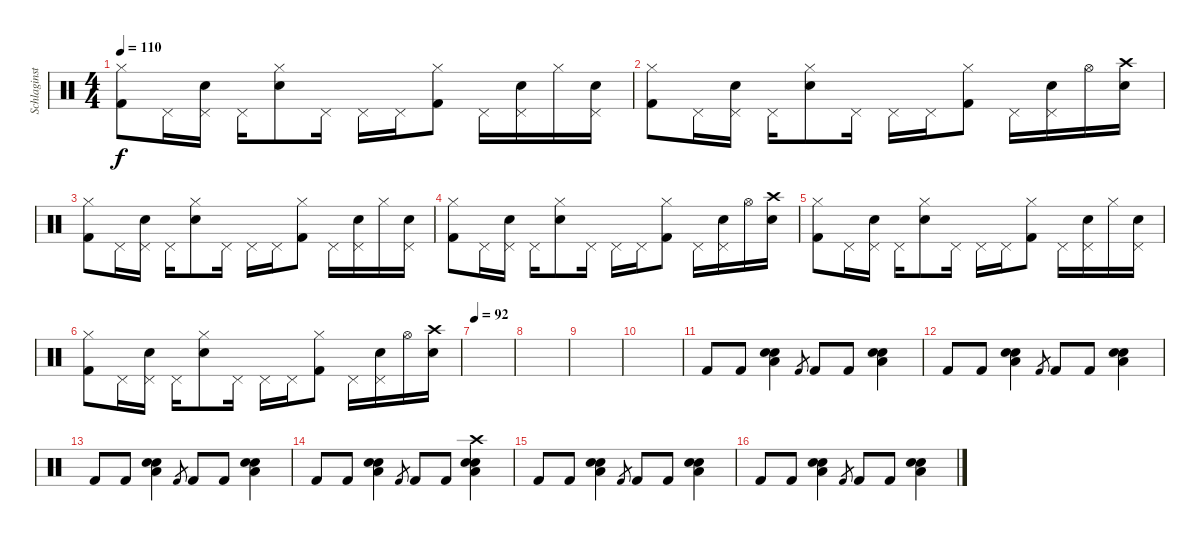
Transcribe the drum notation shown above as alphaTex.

\track ("Schlaginstrumente - Auswahl" "Schlaginst") {mute instrument percussion}
\staff {score}
\articulation defaults
\ts (4 4)
\tempo 110
\clef neutral
\ks c
("Hi-Hat (closed)" "Kick (hit) 2").8{dy f} "Pedal Hi-Hat (hit)".16 ("Pedal Hi-Hat (hit)" "Snare (hit) 2").16 "Pedal Hi-Hat (hit)".16 ("Hi-Hat (closed)" "Snare (hit) 2").8 "Pedal Hi-Hat (hit)".16 "Pedal Hi-Hat (hit)".16 "Pedal Hi-Hat (hit)".16 ("Hi-Hat (closed)" "Kick (hit) 2").8 "Pedal Hi-Hat (hit)".16 ("Pedal Hi-Hat (hit)" "Snare (hit) 2").16 "Hi-Hat (closed)".16 ("Pedal Hi-Hat (hit)" "Snare (hit) 2").16 |
("Hi-Hat (closed)" "Kick (hit) 2").8 "Pedal Hi-Hat (hit)".16 ("Pedal Hi-Hat (hit)" "Snare (hit) 2").16 "Pedal Hi-Hat (hit)".16 ("Hi-Hat (closed)" "Snare (hit) 2").8 "Pedal Hi-Hat (hit)".16 "Pedal Hi-Hat (hit)".16 "Pedal Hi-Hat (hit)".16 ("Hi-Hat (closed)" "Kick (hit) 2").8 "Pedal Hi-Hat (hit)".16 ("Pedal Hi-Hat (hit)" "Snare (hit) 2").16 "Hi-Hat (open)".16 ("Crash high (hit)" "Snare (hit) 2").16 |
("Hi-Hat (closed)" "Kick (hit) 2").8 "Pedal Hi-Hat (hit)".16 ("Pedal Hi-Hat (hit)" "Snare (hit) 2").16 "Pedal Hi-Hat (hit)".16 ("Hi-Hat (closed)" "Snare (hit) 2").8 "Pedal Hi-Hat (hit)".16 "Pedal Hi-Hat (hit)".16 "Pedal Hi-Hat (hit)".16 ("Hi-Hat (closed)" "Kick (hit) 2").8 "Pedal Hi-Hat (hit)".16 ("Pedal Hi-Hat (hit)" "Snare (hit) 2").16 "Hi-Hat (closed)".16 ("Pedal Hi-Hat (hit)" "Snare (hit) 2").16 |
("Hi-Hat (closed)" "Kick (hit) 2").8 "Pedal Hi-Hat (hit)".16 ("Pedal Hi-Hat (hit)" "Snare (hit) 2").16 "Pedal Hi-Hat (hit)".16 ("Hi-Hat (closed)" "Snare (hit) 2").8 "Pedal Hi-Hat (hit)".16 "Pedal Hi-Hat (hit)".16 "Pedal Hi-Hat (hit)".16 ("Hi-Hat (closed)" "Kick (hit) 2").8 "Pedal Hi-Hat (hit)".16 ("Pedal Hi-Hat (hit)" "Snare (hit) 2").16 "Hi-Hat (open)".16 ("Crash high (hit)" "Snare (hit) 2").16 |
("Hi-Hat (closed)" "Kick (hit) 2").8 "Pedal Hi-Hat (hit)".16 ("Pedal Hi-Hat (hit)" "Snare (hit) 2").16 "Pedal Hi-Hat (hit)".16 ("Hi-Hat (closed)" "Snare (hit) 2").8 "Pedal Hi-Hat (hit)".16 "Pedal Hi-Hat (hit)".16 "Pedal Hi-Hat (hit)".16 ("Hi-Hat (closed)" "Kick (hit) 2").8 "Pedal Hi-Hat (hit)".16 ("Pedal Hi-Hat (hit)" "Snare (hit) 2").16 "Hi-Hat (closed)".16 ("Pedal Hi-Hat (hit)" "Snare (hit) 2").16 |
("Hi-Hat (closed)" "Kick (hit) 2").8 "Pedal Hi-Hat (hit)".16 ("Pedal Hi-Hat (hit)" "Snare (hit) 2").16 "Pedal Hi-Hat (hit)".16 ("Hi-Hat (closed)" "Snare (hit) 2").8 "Pedal Hi-Hat (hit)".16 "Pedal Hi-Hat (hit)".16 "Pedal Hi-Hat (hit)".16 ("Hi-Hat (closed)" "Kick (hit) 2").8 "Pedal Hi-Hat (hit)".16 ("Pedal Hi-Hat (hit)" "Snare (hit) 2").16 "Hi-Hat (open)".16 ("Crash high (hit)" "Snare (hit) 2").16 |
\tempo 92
|
|
|
|
"Kick (hit) 2".8 "Kick (hit) 2".8 ("Low Floor Tom (hit)" "Electric Snare (hit)" "Electric Snare (hit)").4 "Kick (hit) 2".8{gr} "Kick (hit) 2".8 "Kick (hit) 2".8 ("Low Floor Tom (hit)" "Electric Snare (hit)" "Electric Snare (hit)").4 |
"Kick (hit) 2".8 "Kick (hit) 2".8 ("Low Floor Tom (hit)" "Electric Snare (hit)" "Electric Snare (hit)").4 "Kick (hit) 2".8{gr} "Kick (hit) 2".8 "Kick (hit) 2".8 ("Low Floor Tom (hit)" "Electric Snare (hit)" "Electric Snare (hit)").4 |
"Kick (hit) 2".8 "Kick (hit) 2".8 ("Low Floor Tom (hit)" "Electric Snare (hit)" "Electric Snare (hit)").4 "Kick (hit) 2".8{gr} "Kick (hit) 2".8 "Kick (hit) 2".8 ("Low Floor Tom (hit)" "Electric Snare (hit)" "Electric Snare (hit)").4 |
"Kick (hit) 2".8 "Kick (hit) 2".8 ("Low Floor Tom (hit)" "Electric Snare (hit)" "Electric Snare (hit)").4 "Kick (hit) 2".8{gr} "Kick (hit) 2".8 "Kick (hit) 2".8 ("Crash high (hit)" "Low Floor Tom (hit)" "Electric Snare (hit)" "Electric Snare (hit)").4 |
"Kick (hit) 2".8 "Kick (hit) 2".8 ("Low Floor Tom (hit)" "Electric Snare (hit)" "Electric Snare (hit)").4 "Kick (hit) 2".8{gr} "Kick (hit) 2".8 "Kick (hit) 2".8 ("Low Floor Tom (hit)" "Electric Snare (hit)" "Electric Snare (hit)").4 |
"Kick (hit) 2".8 "Kick (hit) 2".8 ("Low Floor Tom (hit)" "Electric Snare (hit)" "Electric Snare (hit)").4 "Kick (hit) 2".8{gr} "Kick (hit) 2".8 "Kick (hit) 2".8 ("Low Floor Tom (hit)" "Electric Snare (hit)" "Electric Snare (hit)").4
